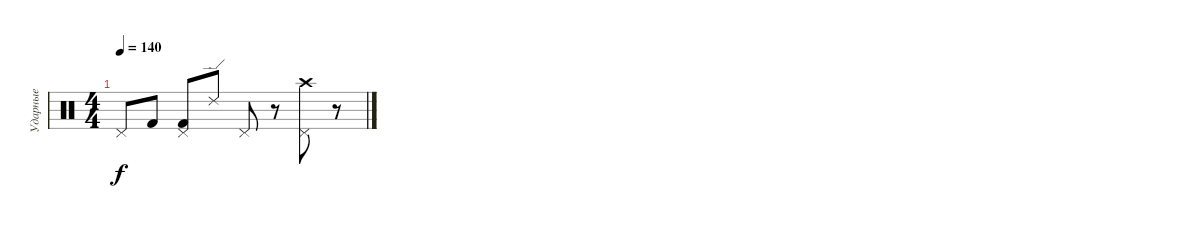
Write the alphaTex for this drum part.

\track ("Ударные" "Ударные") {instrument percussion bank 7}
\staff {score}
\articulation defaults
\ts (4 4)
\tempo 140
\clef neutral
\ks c "Pedal Hi-Hat (hit)".8{dy f} "Kick (hit) 2".8
("Pedal Hi-Hat (hit)" "Kick (hit) 2").8 "Ride (edge) 2".8 "Pedal Hi-Hat (hit)".8 r.8 ("Pedal Hi-Hat (hit)" "Crash high (hit)").8 r.8
